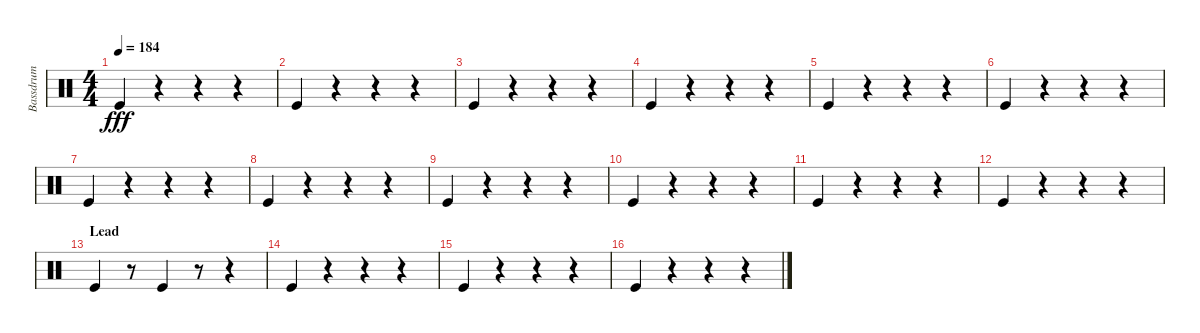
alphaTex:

\track ("Bassdrum" "Bassdrum") {instrument percussion}
\staff {score}
\articulation defaults
\ts (4 4)
\tempo 184
\clef neutral
\ks c "Kick (hit)".4{dy fff}
r.4 r.4 r.4 |
"Kick (hit)".4 r.4 r.4 r.4 |
"Kick (hit)".4 r.4 r.4 r.4 |
"Kick (hit)".4 r.4 r.4 r.4 |
"Kick (hit)".4 r.4 r.4 r.4 |
"Kick (hit)".4 r.4 r.4 r.4 |
"Kick (hit)".4 r.4 r.4 r.4 |
"Kick (hit)".4 r.4 r.4 r.4 |
"Kick (hit)".4 r.4 r.4 r.4 |
"Kick (hit)".4 r.4 r.4 r.4 |
"Kick (hit)".4 r.4 r.4 r.4 |
"Kick (hit)".4 r.4 r.4 r.4 |
\section ("" "Lead")
"Kick (hit)".4 r.8 "Kick (hit)".4 r.8 r.4 |
"Kick (hit)".4 r.4 r.4 r.4 |
"Kick (hit)".4 r.4 r.4 r.4 |
"Kick (hit)".4 r.4 r.4 r.4
